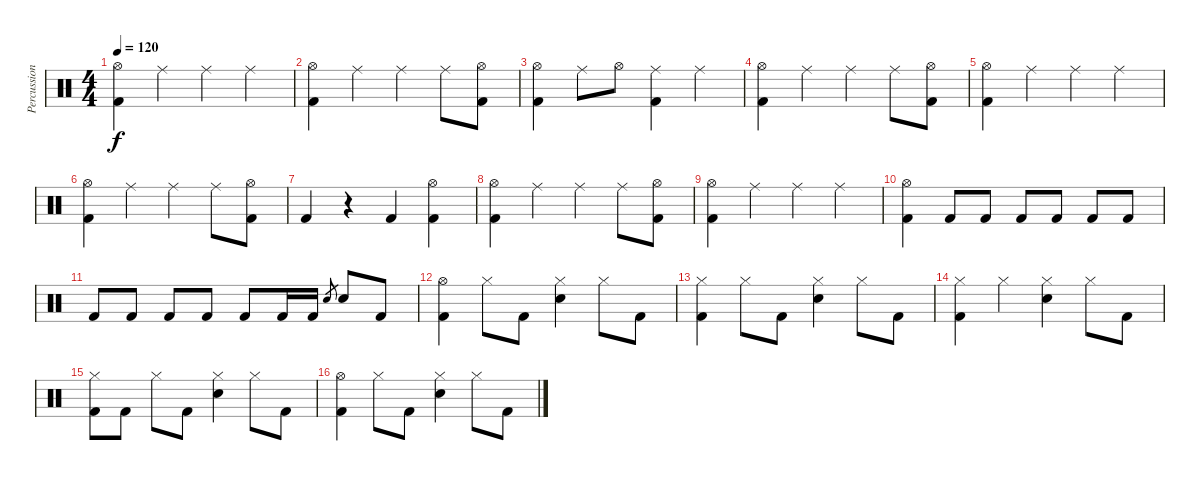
\track ("Percussions" "Percussion") {instrument percussion}
\staff {score}
\articulation defaults
\ts (4 4)
\tempo 120
\clef neutral
\ks c
("Hi-Hat (open)" "Kick (hit) 2").4{dy f} "Ride (middle)".4 "Ride (middle)".4 "Ride (middle)".4 |
("Hi-Hat (open)" "Kick (hit) 2").4 "Ride (middle)".4 "Ride (middle)".4 "Ride (middle)".8 ("Hi-Hat (open)" "Kick (hit) 2").8 |
("Hi-Hat (open)" "Kick (hit) 2").4 "Ride (middle)".8 "Hi-Hat (open)".8 ("Ride (middle)" "Kick (hit) 2").4 "Ride (middle)".4 |
("Hi-Hat (open)" "Kick (hit) 2").4 "Ride (middle)".4 "Ride (middle)".4 "Ride (middle)".8 ("Hi-Hat (open)" "Kick (hit) 2").8 |
("Hi-Hat (open)" "Kick (hit) 2").4 "Ride (middle)".4 "Ride (middle)".4 "Ride (middle)".4 |
("Hi-Hat (open)" "Kick (hit) 2").4 "Ride (middle)".4 "Ride (middle)".4 "Ride (middle)".8 ("Hi-Hat (open)" "Kick (hit) 2").8 |
"Kick (hit) 2".4 r.4 "Kick (hit) 2".4 ("Hi-Hat (open)" "Kick (hit) 2").4 |
("Hi-Hat (open)" "Kick (hit) 2").4 "Ride (middle)".4 "Ride (middle)".4 "Ride (middle)".8 ("Hi-Hat (open)" "Kick (hit) 2").8 |
("Hi-Hat (open)" "Kick (hit) 2").4 "Ride (middle)".4 "Ride (middle)".4 "Ride (middle)".4 |
("Hi-Hat (open)" "Kick (hit) 2").4 "Kick (hit) 2".8 "Kick (hit) 2".8 "Kick (hit) 2".8 "Kick (hit) 2".8 "Kick (hit) 2".8 "Kick (hit) 2".8 |
"Kick (hit) 2".8 "Kick (hit) 2".8 "Kick (hit) 2".8 "Kick (hit) 2".8 "Kick (hit) 2".8 "Kick (hit) 2".16 "Kick (hit) 2".16 "Snare (hit) 2".8{gr} "Snare (hit) 2".8 "Kick (hit) 2".8 |
("Hi-Hat (open)" "Kick (hit) 2").4 "Hi-Hat (closed)".8 "Kick (hit) 2".8 ("Hi-Hat (closed)" "Snare (hit) 2").4 "Hi-Hat (closed)".8 "Kick (hit) 2".8 |
\section ("" "")
("Hi-Hat (closed)" "Kick (hit) 2").4 "Hi-Hat (closed)".8 "Kick (hit) 2".8 ("Hi-Hat (closed)" "Snare (hit) 2").4 "Hi-Hat (closed)".8 "Kick (hit) 2".8 |
("Hi-Hat (closed)" "Kick (hit) 2").4 "Hi-Hat (closed)".4 ("Hi-Hat (closed)" "Snare (hit) 2").4 "Hi-Hat (closed)".8 "Kick (hit) 2".8 |
\section ("" "")
("Hi-Hat (closed)" "Kick (hit) 2").8 "Kick (hit) 2".8 "Hi-Hat (closed)".8 "Kick (hit) 2".8 ("Hi-Hat (closed)" "Snare (hit) 2").4 "Hi-Hat (closed)".8 "Kick (hit) 2".8 |
("Hi-Hat (open)" "Kick (hit) 2").4 "Hi-Hat (closed)".8 "Kick (hit) 2".8 ("Hi-Hat (closed)" "Snare (hit) 2").4 "Hi-Hat (closed)".8 "Kick (hit) 2".8
